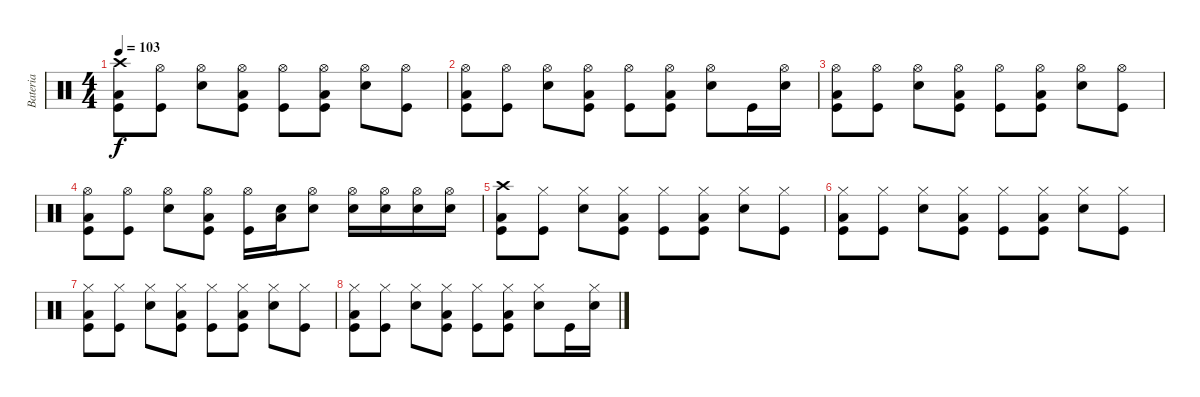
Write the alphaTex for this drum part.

\track ("Bateria" "Bateria") {instrument percussion}
\staff {score}
\articulation defaults
\ts (4 4)
\tempo 103
\clef neutral
\ks c
("Crash high (hit)" "Kick (hit)" "Low Tom (hit)").8{dy f} ("Hi-Hat (open)" "Kick (hit)").8 ("Hi-Hat (open)" "Snare (hit) 2").8 ("Hi-Hat (open)" "Kick (hit)" "Low Tom (hit)").8 ("Hi-Hat (open)" "Kick (hit)").8 ("Hi-Hat (open)" "Kick (hit)" "Low Tom (hit)").8 ("Hi-Hat (open)" "Snare (hit) 2").8 ("Hi-Hat (open)" "Kick (hit)").8 |
("Hi-Hat (open)" "Kick (hit)" "Low Tom (hit)").8 ("Hi-Hat (open)" "Kick (hit)").8 ("Hi-Hat (open)" "Snare (hit) 2").8 ("Hi-Hat (open)" "Kick (hit)" "Low Tom (hit)").8 ("Hi-Hat (open)" "Kick (hit)").8 ("Hi-Hat (open)" "Kick (hit)" "Low Tom (hit)").8 ("Hi-Hat (open)" "Snare (hit) 2").8 "Kick (hit)".16 ("Hi-Hat (open)" "Snare (hit) 2").16 |
("Hi-Hat (open)" "Kick (hit)" "Low Tom (hit)").8 ("Hi-Hat (open)" "Kick (hit)").8 ("Hi-Hat (open)" "Snare (hit) 2").8 ("Hi-Hat (open)" "Kick (hit)" "Low Tom (hit)").8 ("Hi-Hat (open)" "Kick (hit)").8 ("Hi-Hat (open)" "Kick (hit)" "Low Tom (hit)").8 ("Hi-Hat (open)" "Snare (hit) 2").8 ("Hi-Hat (open)" "Kick (hit)").8 |
("Hi-Hat (open)" "Kick (hit)" "Low Tom (hit)").8 ("Hi-Hat (open)" "Kick (hit)").8 ("Hi-Hat (open)" "Snare (hit) 2").8 ("Hi-Hat (open)" "Kick (hit)" "Low Tom (hit)").8 ("Hi-Hat (open)" "Kick (hit)").16 ("Snare (hit) 2" "Low Tom (hit)").16 ("Hi-Hat (open)" "Snare (hit) 2").8 ("Hi-Hat (open)" "Snare (hit) 2").16 ("Hi-Hat (open)" "Snare (hit) 2").16 ("Hi-Hat (open)" "Snare (hit) 2").16 ("Hi-Hat (open)" "Snare (hit) 2").16 |
("Crash high (hit)" "Kick (hit)" "Low Tom (hit)").8 ("Hi-Hat (closed)" "Kick (hit)").8 ("Hi-Hat (closed)" "Snare (hit) 2").8 ("Hi-Hat (closed)" "Kick (hit)" "Low Tom (hit)").8 ("Hi-Hat (closed)" "Kick (hit)").8 ("Hi-Hat (closed)" "Kick (hit)" "Low Tom (hit)").8 ("Hi-Hat (closed)" "Snare (hit) 2").8 ("Hi-Hat (closed)" "Kick (hit)").8 |
("Hi-Hat (closed)" "Kick (hit)" "Low Tom (hit)").8 ("Hi-Hat (closed)" "Kick (hit)").8 ("Hi-Hat (closed)" "Snare (hit) 2").8 ("Hi-Hat (closed)" "Kick (hit)" "Low Tom (hit)").8 ("Hi-Hat (closed)" "Kick (hit)").8 ("Hi-Hat (closed)" "Kick (hit)" "Low Tom (hit)").8 ("Hi-Hat (closed)" "Snare (hit) 2").8 ("Hi-Hat (closed)" "Kick (hit)").8 |
("Hi-Hat (closed)" "Kick (hit)" "Low Tom (hit)").8 ("Hi-Hat (closed)" "Kick (hit)").8 ("Hi-Hat (closed)" "Snare (hit) 2").8 ("Hi-Hat (closed)" "Kick (hit)" "Low Tom (hit)").8 ("Hi-Hat (closed)" "Kick (hit)").8 ("Hi-Hat (closed)" "Kick (hit)" "Low Tom (hit)").8 ("Hi-Hat (closed)" "Snare (hit) 2").8 ("Hi-Hat (closed)" "Kick (hit)").8 |
("Hi-Hat (closed)" "Kick (hit)" "Low Tom (hit)").8 ("Hi-Hat (closed)" "Kick (hit)").8 ("Hi-Hat (closed)" "Snare (hit) 2").8 ("Hi-Hat (closed)" "Kick (hit)" "Low Tom (hit)").8 ("Hi-Hat (closed)" "Kick (hit)").8 ("Hi-Hat (closed)" "Kick (hit)" "Low Tom (hit)").8 ("Hi-Hat (closed)" "Snare (hit) 2").8 "Kick (hit)".16 ("Hi-Hat (closed)" "Snare (hit) 2").16
